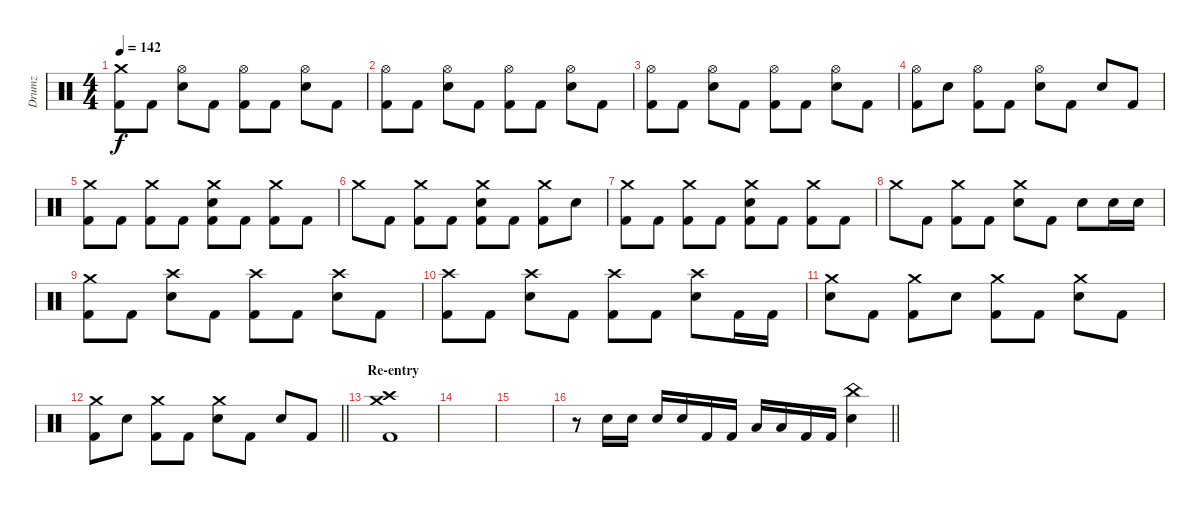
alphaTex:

\track ("Drumz" "Drumz") {instrument percussion}
\staff {score}
\articulation defaults
\ts (4 4)
\tempo 142
\clef neutral
\ks c
("Crash medium (hit)" "Kick (hit) 2").8{dy f} "Kick (hit) 2".8 ("Hi-Hat (open)" "Electric Snare (hit)").8 "Kick (hit) 2".8 ("Hi-Hat (open)" "Kick (hit) 2").8 "Kick (hit) 2".8 ("Hi-Hat (open)" "Electric Snare (hit)").8 "Kick (hit) 2".8 |
("Hi-Hat (open)" "Kick (hit) 2").8 "Kick (hit) 2".8 ("Hi-Hat (open)" "Electric Snare (hit)").8 "Kick (hit) 2".8 ("Hi-Hat (open)" "Kick (hit) 2").8 "Kick (hit) 2".8 ("Hi-Hat (open)" "Electric Snare (hit)").8 "Kick (hit) 2".8 |
("Hi-Hat (open)" "Kick (hit) 2").8 "Kick (hit) 2".8 ("Hi-Hat (open)" "Electric Snare (hit)").8 "Kick (hit) 2".8 ("Hi-Hat (open)" "Kick (hit) 2").8 "Kick (hit) 2".8 ("Hi-Hat (open)" "Electric Snare (hit)").8 "Kick (hit) 2".8 |
("Hi-Hat (open)" "Kick (hit) 2").8 "Electric Snare (hit)".8 ("Hi-Hat (open)" "Kick (hit) 2").8 "Kick (hit) 2".8 ("Hi-Hat (open)" "Electric Snare (hit)").8 "Kick (hit) 2".8 "Electric Snare (hit)".8 "Kick (hit) 2".8 |
("Crash medium (hit)" "Kick (hit) 2").8 "Kick (hit) 2".8 ("Crash medium (hit)" "Kick (hit) 2").8 "Kick (hit) 2".8 ("Crash medium (hit)" "Electric Snare (hit)" "Kick (hit) 2").8 "Kick (hit) 2".8 ("Crash medium (hit)" "Kick (hit) 2").8 "Kick (hit) 2".8 |
"Crash medium (hit)".8 "Kick (hit) 2".8 ("Crash medium (hit)" "Kick (hit) 2").8 "Kick (hit) 2".8 ("Crash medium (hit)" "Electric Snare (hit)" "Kick (hit) 2").8 "Kick (hit) 2".8 ("Crash medium (hit)" "Kick (hit) 2").8 "Electric Snare (hit)".8 |
("Crash medium (hit)" "Kick (hit) 2").8 "Kick (hit) 2".8 ("Crash medium (hit)" "Kick (hit) 2").8 "Kick (hit) 2".8 ("Crash medium (hit)" "Electric Snare (hit)" "Kick (hit) 2").8 "Kick (hit) 2".8 ("Crash medium (hit)" "Kick (hit) 2").8 "Kick (hit) 2".8 |
"Crash medium (hit)".8 "Kick (hit) 2".8 ("Crash medium (hit)" "Kick (hit) 2").8 "Kick (hit) 2".8 ("Crash medium (hit)" "Electric Snare (hit)").8 "Kick (hit) 2".8 "Electric Snare (hit)".8 "Electric Snare (hit)".16 "Electric Snare (hit)".16 |
("Crash medium (hit)" "Kick (hit) 2").8 "Kick (hit) 2".8 ("Crash high (hit)" "Electric Snare (hit)").8 "Kick (hit) 2".8 ("Crash high (hit)" "Kick (hit) 2").8 "Kick (hit) 2".8 ("Crash high (hit)" "Electric Snare (hit)").8 "Kick (hit) 2".8 |
("Crash high (hit)" "Kick (hit) 2").8 "Kick (hit) 2".8 ("Crash high (hit)" "Electric Snare (hit)").8 "Kick (hit) 2".8 ("Crash high (hit)" "Kick (hit) 2").8 "Kick (hit) 2".8 ("Crash high (hit)" "Electric Snare (hit)").8 "Kick (hit) 2".16 "Kick (hit) 2".16 |
("Crash medium (hit)" "Electric Snare (hit)").8 "Kick (hit) 2".8 ("Crash medium (hit)" "Kick (hit) 2").8 "Electric Snare (hit)".8 ("Crash medium (hit)" "Kick (hit) 2").8 "Kick (hit) 2".8 ("Crash medium (hit)" "Electric Snare (hit)").8 "Kick (hit) 2".8 |
\barLineRight lightlight
("Crash medium (hit)" "Kick (hit) 2").8 "Electric Snare (hit)".8 ("Crash medium (hit)" "Kick (hit) 2").8 "Kick (hit) 2".8 ("Crash medium (hit)" "Electric Snare (hit)").8 "Kick (hit) 2".8 "Electric Snare (hit)".8 "Kick (hit) 2".8 |
\section ("" "Re-entry")
("Crash high (hit)" "Crash medium (hit)" "Kick (hit) 2").1 |
|
|
\barLineRight lightlight
r.8 "Electric Snare (hit)".16 "Electric Snare (hit)".16 "Electric Snare (hit)".16 "Electric Snare (hit)".16 "Kick (hit) 2".16 "Kick (hit) 2".16 "Low Floor Tom (hit)".16 "Low Floor Tom (hit)".16 "Kick (hit) 2".16 "Kick (hit) 2".16 ("China (hit)" "Electric Snare (hit)").4
